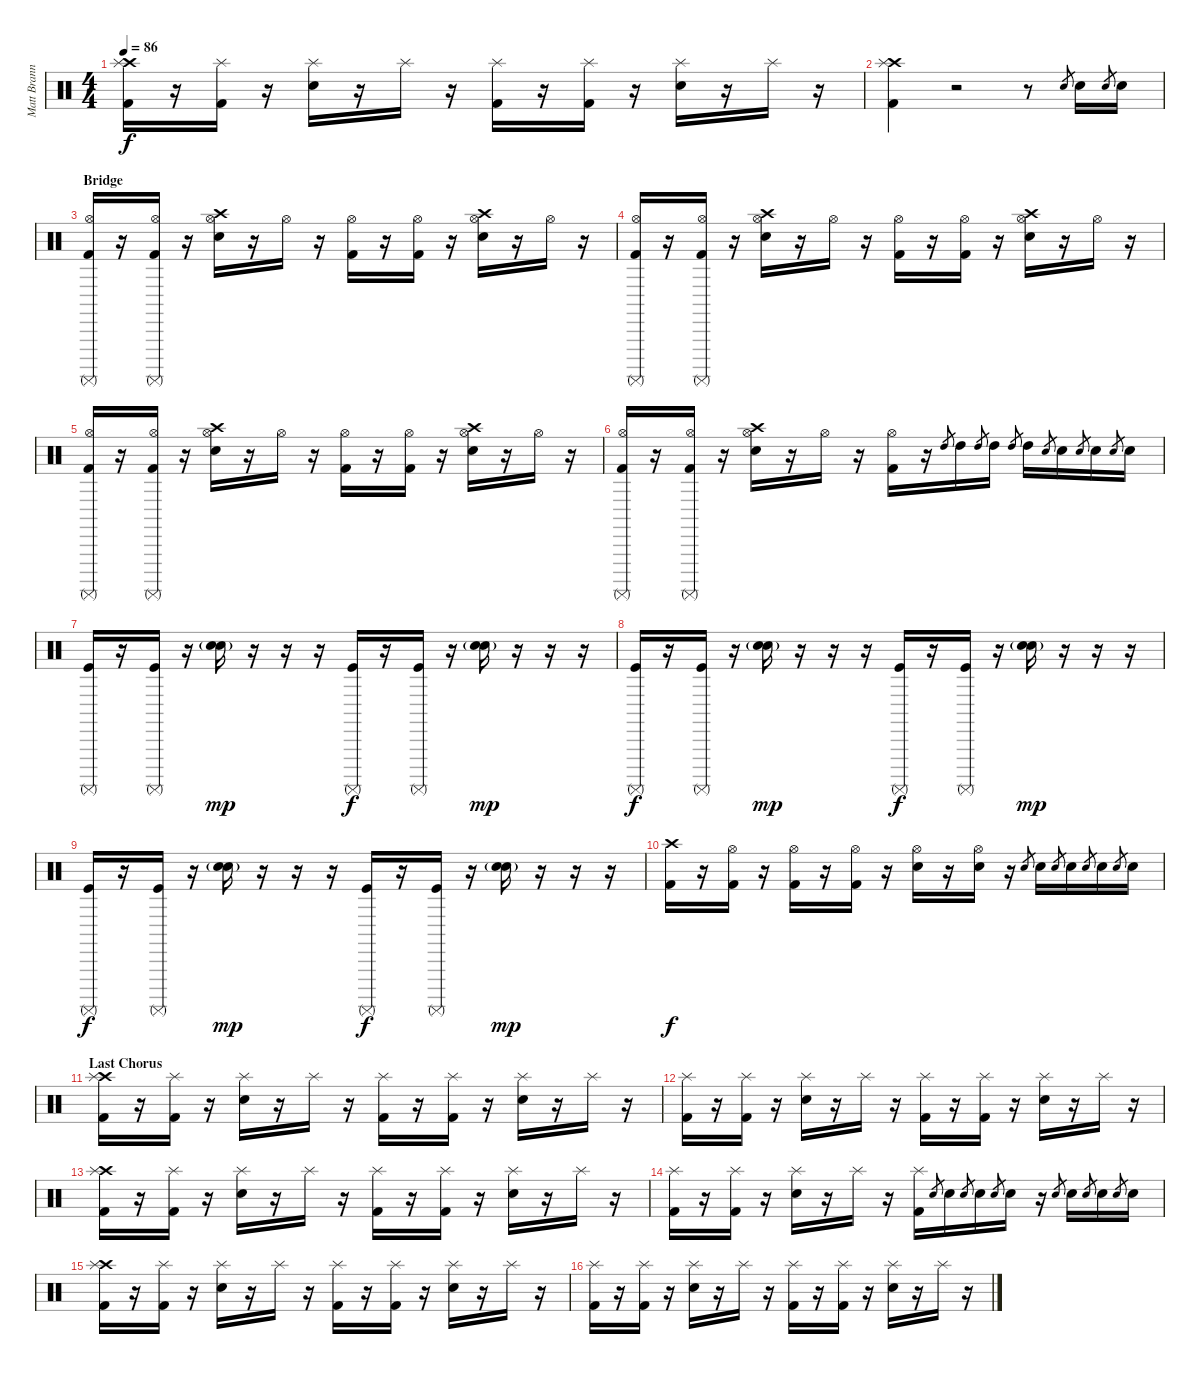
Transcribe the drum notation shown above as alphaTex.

\track ("Matt Brann - Drums" "Matt Brann") {instrument percussion}
\staff {score}
\articulation defaults
\ts (4 4)
\tempo 86
\clef neutral
\ks c
("Crash high (hit)" "Splash (hit)" "Kick (hit) 2").16{dy f} r.16 ("Splash (hit)" "Kick (hit) 2").16 r.16 ("Splash (hit)" "Snare (hit) 2").16 r.16 "Splash (hit)".16 r.16 ("Splash (hit)" "Kick (hit) 2").16 r.16 ("Splash (hit)" "Kick (hit) 2").16 r.16 ("Splash (hit)" "Snare (hit) 2").16 r.16 "Splash (hit)".16 r.16 |
("Crash high (hit)" "Splash (hit)" "Kick (hit) 2").4 r.2 r.8 "Snare (hit) 2".8{gr} "Snare (hit) 2".16 "Snare (hit) 2".8{gr} "Snare (hit) 2".16 |
\section ("" "Bridge")
("Hi-Hat (open)" "Surdo (mute)" "Kick (hit) 2").16 r.16 ("Hi-Hat (open)" "Surdo (mute)" "Kick (hit) 2").16 r.16 ("Crash high (hit)" "Hi-Hat (open)" "Snare (hit) 2").16 r.16 "Hi-Hat (open)".16 r.16 ("Hi-Hat (open)" "Kick (hit) 2").16 r.16 ("Hi-Hat (open)" "Kick (hit) 2").16 r.16 ("Crash high (hit)" "Hi-Hat (open)" "Snare (hit) 2").16 r.16 "Hi-Hat (open)".16 r.16 |
("Hi-Hat (open)" "Surdo (mute)" "Kick (hit) 2").16 r.16 ("Hi-Hat (open)" "Surdo (mute)" "Kick (hit) 2").16 r.16 ("Crash high (hit)" "Hi-Hat (open)" "Snare (hit) 2").16 r.16 "Hi-Hat (open)".16 r.16 ("Hi-Hat (open)" "Kick (hit) 2").16 r.16 ("Hi-Hat (open)" "Kick (hit) 2").16 r.16 ("Crash high (hit)" "Hi-Hat (open)" "Snare (hit) 2").16 r.16 "Hi-Hat (open)".16 r.16 |
("Hi-Hat (open)" "Surdo (mute)" "Kick (hit) 2").16 r.16 ("Hi-Hat (open)" "Surdo (mute)" "Kick (hit) 2").16 r.16 ("Crash high (hit)" "Hi-Hat (open)" "Snare (hit) 2").16 r.16 "Hi-Hat (open)".16 r.16 ("Hi-Hat (open)" "Kick (hit) 2").16 r.16 ("Hi-Hat (open)" "Kick (hit) 2").16 r.16 ("Crash high (hit)" "Hi-Hat (open)" "Snare (hit) 2").16 r.16 "Hi-Hat (open)".16 r.16 |
("Hi-Hat (open)" "Surdo (mute)" "Kick (hit) 2").16 r.16 ("Hi-Hat (open)" "Surdo (mute)" "Kick (hit) 2").16 r.16 ("Crash high (hit)" "Hi-Hat (open)" "Snare (hit) 2").16 r.16 "Hi-Hat (open)".16 r.16 ("Hi-Hat (open)" "Kick (hit) 2").16 r.16 "High Tom (hit)".8{gr} "High Tom (hit)".16 "High Tom (hit)".8{gr} "High Tom (hit)".16 "High Tom (hit)".8{gr} "High Tom (hit)".16 "Snare (hit) 2".8{gr} "Snare (hit) 2".16 "Snare (hit) 2".8{gr} "Snare (hit) 2".16 "Snare (hit) 2".8{gr} "Snare (hit) 2".16 |
("Surdo (mute)" "Kick (hit)").16 r.16 ("Surdo (mute)" "Kick (hit)").16 r.16 ("Hand Clap (hit)"{g} "Snare (hit) 2").16{dy mp} r.16 r.16 r.16 ("Surdo (mute)" "Kick (hit)").16{dy f} r.16 ("Surdo (mute)" "Kick (hit)").16 r.16 ("Hand Clap (hit)"{g} "Snare (hit) 2").16{dy mp} r.16 r.16 r.16 |
("Surdo (mute)" "Kick (hit)").16{dy f} r.16 ("Surdo (mute)" "Kick (hit)").16 r.16 ("Hand Clap (hit)"{g} "Snare (hit) 2").16{dy mp} r.16 r.16 r.16 ("Surdo (mute)" "Kick (hit)").16{dy f} r.16 ("Surdo (mute)" "Kick (hit)").16 r.16 ("Hand Clap (hit)"{g} "Snare (hit) 2").16{dy mp} r.16 r.16 r.16 |
("Surdo (mute)" "Kick (hit)").16{dy f} r.16 ("Surdo (mute)" "Kick (hit)").16 r.16 ("Hand Clap (hit)"{g} "Snare (hit) 2").16{dy mp} r.16 r.16 r.16 ("Surdo (mute)" "Kick (hit)").16{dy f} r.16 ("Surdo (mute)" "Kick (hit)").16 r.16 ("Hand Clap (hit)"{g} "Snare (hit) 2").16{dy mp} r.16 r.16 r.16 |
("Crash high (hit)" "Kick (hit) 2").16{dy f} r.16 ("Hi-Hat (open)" "Kick (hit) 2").16 r.16 ("Hi-Hat (open)" "Kick (hit) 2").16 r.16 ("Hi-Hat (open)" "Kick (hit) 2").16 r.16 ("Hi-Hat (open)" "Snare (hit) 2").16 r.16 ("Hi-Hat (open)" "Snare (hit) 2").16 r.16 "Snare (hit) 2".8{gr} "Snare (hit) 2".16 "Snare (hit) 2".8{gr} "Snare (hit) 2".16 "Snare (hit) 2".8{gr} "Snare (hit) 2".16 "Snare (hit) 2".8{gr} "Snare (hit) 2".16 |
\section ("" "Last Chorus")
("Crash high (hit)" "Splash (hit)" "Kick (hit) 2").16 r.16 ("Splash (hit)" "Kick (hit) 2").16 r.16 ("Splash (hit)" "Snare (hit) 2").16 r.16 "Splash (hit)".16 r.16 ("Splash (hit)" "Kick (hit) 2").16 r.16 ("Splash (hit)" "Kick (hit) 2").16 r.16 ("Splash (hit)" "Snare (hit) 2").16 r.16 "Splash (hit)".16 r.16 |
("Splash (hit)" "Kick (hit) 2").16 r.16 ("Splash (hit)" "Kick (hit) 2").16 r.16 ("Splash (hit)" "Snare (hit) 2").16 r.16 "Splash (hit)".16 r.16 ("Splash (hit)" "Kick (hit) 2").16 r.16 ("Splash (hit)" "Kick (hit) 2").16 r.16 ("Splash (hit)" "Snare (hit) 2").16 r.16 "Splash (hit)".16 r.16 |
("Crash high (hit)" "Splash (hit)" "Kick (hit) 2").16 r.16 ("Splash (hit)" "Kick (hit) 2").16 r.16 ("Splash (hit)" "Snare (hit) 2").16 r.16 "Splash (hit)".16 r.16 ("Splash (hit)" "Kick (hit) 2").16 r.16 ("Splash (hit)" "Kick (hit) 2").16 r.16 ("Splash (hit)" "Snare (hit) 2").16 r.16 "Splash (hit)".16 r.16 |
("Splash (hit)" "Kick (hit) 2").16 r.16 ("Splash (hit)" "Kick (hit) 2").16 r.16 ("Splash (hit)" "Snare (hit) 2").16 r.16 "Splash (hit)".16 r.16 ("Splash (hit)" "Kick (hit) 2").16 "Snare (hit) 2".8{gr} "Snare (hit) 2".16 "Snare (hit) 2".8{gr} "Snare (hit) 2".16 "Snare (hit) 2".8{gr} "Snare (hit) 2".16 r.16 "Snare (hit) 2".8{gr} "Snare (hit) 2".16 "Snare (hit) 2".8{gr} "Snare (hit) 2".16 "Snare (hit) 2".8{gr} "Snare (hit) 2".16 |
("Crash high (hit)" "Splash (hit)" "Kick (hit) 2").16 r.16 ("Splash (hit)" "Kick (hit) 2").16 r.16 ("Splash (hit)" "Snare (hit) 2").16 r.16 "Splash (hit)".16 r.16 ("Splash (hit)" "Kick (hit) 2").16 r.16 ("Splash (hit)" "Kick (hit) 2").16 r.16 ("Splash (hit)" "Snare (hit) 2").16 r.16 "Splash (hit)".16 r.16 |
("Splash (hit)" "Kick (hit) 2").16 r.16 ("Splash (hit)" "Kick (hit) 2").16 r.16 ("Splash (hit)" "Snare (hit) 2").16 r.16 "Splash (hit)".16 r.16 ("Splash (hit)" "Kick (hit) 2").16 r.16 ("Splash (hit)" "Kick (hit) 2").16 r.16 ("Splash (hit)" "Snare (hit) 2").16 r.16 "Splash (hit)".16 r.16
